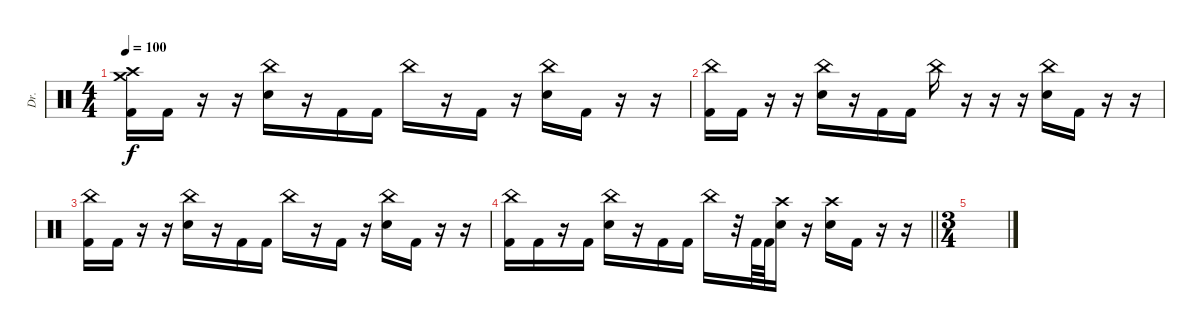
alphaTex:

\track ("Dr." "Dr.") {instrument percussion}
\staff {score}
\articulation defaults
\ts (4 4)
\tempo 100
\clef neutral
\ks c
("Crash high (hit)" "Crash medium (hit)" "Kick (hit) 2").16{dy f} "Kick (hit) 2".16 r.16 r.16 ("China (hit)" "Electric Snare (hit)").16 r.16 "Kick (hit) 2".16 "Kick (hit) 2".16 "China (hit)".16 r.16 "Kick (hit) 2".16 r.16 ("China (hit)" "Electric Snare (hit)").16 "Kick (hit) 2".16 r.16 r.16 |
("China (hit)" "Kick (hit) 2").16 "Kick (hit) 2".16 r.16 r.16 ("China (hit)" "Electric Snare (hit)").16 r.16 "Kick (hit) 2".16 "Kick (hit) 2".16 "China (hit)".16 r.16 r.16 r.16 ("China (hit)" "Electric Snare (hit)").16 "Kick (hit) 2".16 r.16 r.16 |
("China (hit)" "Kick (hit) 2").16 "Kick (hit) 2".16 r.16 r.16 ("China (hit)" "Electric Snare (hit)").16 r.16 "Kick (hit) 2".16 "Kick (hit) 2".16 "China (hit)".16 r.16 "Kick (hit) 2".16 r.16 ("China (hit)" "Electric Snare (hit)").16 "Kick (hit) 2".16 r.16 r.16 |
\barLineRight lightlight
("China (hit)" "Kick (hit) 2").16 "Kick (hit) 2".16 r.16 "Kick (hit) 2".16 ("China (hit)" "Electric Snare (hit)").16 r.16 "Kick (hit) 2".16 "Kick (hit) 2".16 "China (hit)".16 r.32 "Kick (hit) 2".64 "Kick (hit) 2".64 ("Crash high (hit)" "Electric Snare (hit)").16 r.16 ("Crash high (hit)" "Electric Snare (hit)").16 "Kick (hit) 2".16 r.16 r.16 |
\ts (3 4)
